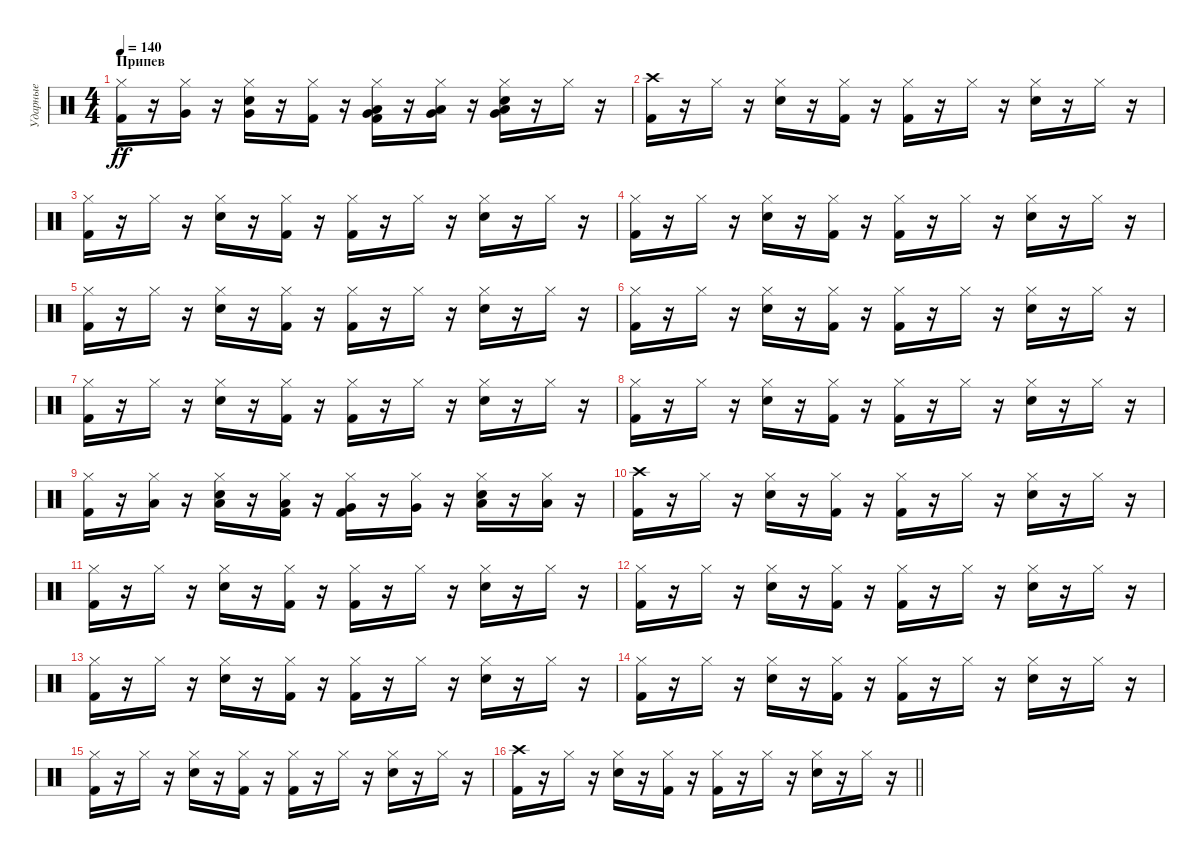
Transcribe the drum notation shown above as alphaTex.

\track ("Ударные" "Ударные") {instrument percussion}
\staff {score}
\articulation defaults
\ts (4 4)
\section ("" "Припев")
\tempo 140
\clef neutral
\ks c
("Hi-Hat (closed)" "Kick (hit) 2").16{dy ff} r.16 ("Hi-Hat (closed)" "Very Low Tom (hit)").16 r.16 ("Hi-Hat (closed)" "Snare (hit) 2" "Very Low Tom (hit)").16 r.16 ("Hi-Hat (closed)" "Kick (hit) 2").16 r.16 ("Hi-Hat (closed)" "Kick (hit) 2" "Low Floor Tom (hit)" "Very Low Tom (hit)").16 r.16 ("Hi-Hat (closed)" "Low Floor Tom (hit)" "Very Low Tom (hit)").16 r.16 ("Hi-Hat (closed)" "Snare (hit) 2" "Low Floor Tom (hit)" "Very Low Tom (hit)").16 r.16 "Hi-Hat (closed)".16 r.16 |
("Crash high (hit)" "Kick (hit) 2").16 r.16 "Hi-Hat (closed)".16 r.16 ("Hi-Hat (closed)" "Snare (hit) 2").16 r.16 ("Hi-Hat (closed)" "Kick (hit) 2").16 r.16 ("Hi-Hat (closed)" "Kick (hit) 2").16 r.16 "Hi-Hat (closed)".16 r.16 ("Hi-Hat (closed)" "Snare (hit) 2").16 r.16 "Hi-Hat (closed)".16 r.16 |
("Hi-Hat (closed)" "Kick (hit) 2").16 r.16 "Hi-Hat (closed)".16 r.16 ("Hi-Hat (closed)" "Snare (hit) 2").16 r.16 ("Hi-Hat (closed)" "Kick (hit) 2").16 r.16 ("Hi-Hat (closed)" "Kick (hit) 2").16 r.16 "Hi-Hat (closed)".16 r.16 ("Hi-Hat (closed)" "Snare (hit) 2").16 r.16 "Hi-Hat (closed)".16 r.16 |
("Hi-Hat (closed)" "Kick (hit) 2").16 r.16 "Hi-Hat (closed)".16 r.16 ("Hi-Hat (closed)" "Snare (hit) 2").16 r.16 ("Hi-Hat (closed)" "Kick (hit) 2").16 r.16 ("Hi-Hat (closed)" "Kick (hit) 2").16 r.16 "Hi-Hat (closed)".16 r.16 ("Hi-Hat (closed)" "Snare (hit) 2").16 r.16 "Hi-Hat (closed)".16 r.16 |
("Hi-Hat (closed)" "Kick (hit) 2").16 r.16 "Hi-Hat (closed)".16 r.16 ("Hi-Hat (closed)" "Snare (hit) 2").16 r.16 ("Hi-Hat (closed)" "Kick (hit) 2").16 r.16 ("Hi-Hat (closed)" "Kick (hit) 2").16 r.16 "Hi-Hat (closed)".16 r.16 ("Hi-Hat (closed)" "Snare (hit) 2").16 r.16 "Hi-Hat (closed)".16 r.16 |
("Hi-Hat (closed)" "Kick (hit) 2").16 r.16 "Hi-Hat (closed)".16 r.16 ("Hi-Hat (closed)" "Snare (hit) 2").16 r.16 ("Hi-Hat (closed)" "Kick (hit) 2").16 r.16 ("Hi-Hat (closed)" "Kick (hit) 2").16 r.16 "Hi-Hat (closed)".16 r.16 ("Hi-Hat (closed)" "Snare (hit) 2").16 r.16 "Hi-Hat (closed)".16 r.16 |
("Hi-Hat (closed)" "Kick (hit) 2").16 r.16 "Hi-Hat (closed)".16 r.16 ("Hi-Hat (closed)" "Snare (hit) 2").16 r.16 ("Hi-Hat (closed)" "Kick (hit) 2").16 r.16 ("Hi-Hat (closed)" "Kick (hit) 2").16 r.16 "Hi-Hat (closed)".16 r.16 ("Hi-Hat (closed)" "Snare (hit) 2").16 r.16 "Hi-Hat (closed)".16 r.16 |
("Hi-Hat (closed)" "Kick (hit) 2").16 r.16 "Hi-Hat (closed)".16 r.16 ("Hi-Hat (closed)" "Snare (hit) 2").16 r.16 ("Hi-Hat (closed)" "Kick (hit) 2").16 r.16 ("Hi-Hat (closed)" "Kick (hit) 2").16 r.16 "Hi-Hat (closed)".16 r.16 ("Hi-Hat (closed)" "Snare (hit) 2").16 r.16 "Hi-Hat (closed)".16 r.16 |
("Hi-Hat (closed)" "Kick (hit) 2").16 r.16 ("Hi-Hat (closed)" "Low Tom (hit)").16 r.16 ("Hi-Hat (closed)" "Snare (hit) 2" "Low Tom (hit)").16 r.16 ("Hi-Hat (closed)" "Kick (hit) 2" "Low Tom (hit)").16 r.16 ("Hi-Hat (closed)" "Kick (hit) 2" "Very Low Tom (hit)").16 r.16 ("Hi-Hat (closed)" "Very Low Tom (hit)").16 r.16 ("Hi-Hat (closed)" "Snare (hit) 2" "Low Floor Tom (hit)").16 r.16 ("Hi-Hat (closed)" "Low Floor Tom (hit)").16 r.16 |
("Crash high (hit)" "Kick (hit) 2").16 r.16 "Hi-Hat (closed)".16 r.16 ("Hi-Hat (closed)" "Snare (hit) 2").16 r.16 ("Hi-Hat (closed)" "Kick (hit) 2").16 r.16 ("Hi-Hat (closed)" "Kick (hit) 2").16 r.16 "Hi-Hat (closed)".16 r.16 ("Hi-Hat (closed)" "Snare (hit) 2").16 r.16 "Hi-Hat (closed)".16 r.16 |
("Hi-Hat (closed)" "Kick (hit) 2").16 r.16 "Hi-Hat (closed)".16 r.16 ("Hi-Hat (closed)" "Snare (hit) 2").16 r.16 ("Hi-Hat (closed)" "Kick (hit) 2").16 r.16 ("Hi-Hat (closed)" "Kick (hit) 2").16 r.16 "Hi-Hat (closed)".16 r.16 ("Hi-Hat (closed)" "Snare (hit) 2").16 r.16 "Hi-Hat (closed)".16 r.16 |
("Hi-Hat (closed)" "Kick (hit) 2").16 r.16 "Hi-Hat (closed)".16 r.16 ("Hi-Hat (closed)" "Snare (hit) 2").16 r.16 ("Hi-Hat (closed)" "Kick (hit) 2").16 r.16 ("Hi-Hat (closed)" "Kick (hit) 2").16 r.16 "Hi-Hat (closed)".16 r.16 ("Hi-Hat (closed)" "Snare (hit) 2").16 r.16 "Hi-Hat (closed)".16 r.16 |
("Hi-Hat (closed)" "Kick (hit) 2").16 r.16 "Hi-Hat (closed)".16 r.16 ("Hi-Hat (closed)" "Snare (hit) 2").16 r.16 ("Hi-Hat (closed)" "Kick (hit) 2").16 r.16 ("Hi-Hat (closed)" "Kick (hit) 2").16 r.16 "Hi-Hat (closed)".16 r.16 ("Hi-Hat (closed)" "Snare (hit) 2").16 r.16 "Hi-Hat (closed)".16 r.16 |
("Hi-Hat (closed)" "Kick (hit) 2").16 r.16 "Hi-Hat (closed)".16 r.16 ("Hi-Hat (closed)" "Snare (hit) 2").16 r.16 ("Hi-Hat (closed)" "Kick (hit) 2").16 r.16 ("Hi-Hat (closed)" "Kick (hit) 2").16 r.16 "Hi-Hat (closed)".16 r.16 ("Hi-Hat (closed)" "Snare (hit) 2").16 r.16 "Hi-Hat (closed)".16 r.16 |
("Hi-Hat (closed)" "Kick (hit) 2").16 r.16 "Hi-Hat (closed)".16 r.16 ("Hi-Hat (closed)" "Snare (hit) 2").16 r.16 ("Hi-Hat (closed)" "Kick (hit) 2").16 r.16 ("Hi-Hat (closed)" "Kick (hit) 2").16 r.16 "Hi-Hat (closed)".16 r.16 ("Hi-Hat (closed)" "Snare (hit) 2").16 r.16 "Hi-Hat (closed)".16 r.16 |
\barLineRight lightlight
("Crash high (hit)" "Kick (hit) 2").16 r.16 "Hi-Hat (closed)".16 r.16 ("Hi-Hat (closed)" "Snare (hit) 2").16 r.16 ("Hi-Hat (closed)" "Kick (hit) 2").16 r.16 ("Hi-Hat (closed)" "Kick (hit) 2").16 r.16 "Hi-Hat (closed)".16 r.16 ("Hi-Hat (closed)" "Snare (hit) 2").16 r.16 "Hi-Hat (closed)".16 r.16
